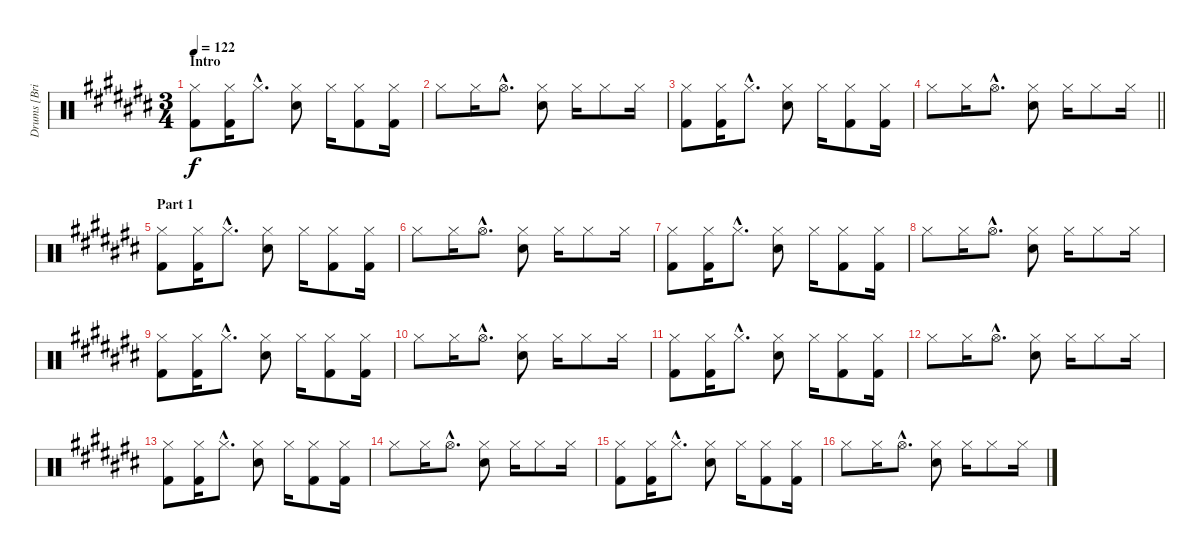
\track ("Drums [Brian \"Brain\" Mantia]" "Drums [Bri") {instrument percussion}
\staff {score}
\articulation defaults
\ts (3 4)
\section ("" "Intro")
\tempo 122
\clef neutral
\ks c#
("Hi-Hat (closed)" "Kick (hit) 2").8{dy f} ("Hi-Hat (closed)" "Kick (hit) 2").16 "Hi-Hat (closed)"{hac}.8{d} ("Hi-Hat (closed)" "Electric Snare (hit)").8 "Hi-Hat (closed)".16 ("Hi-Hat (closed)" "Kick (hit) 2").8 ("Hi-Hat (closed)" "Kick (hit) 2").16 |
"Hi-Hat (closed)".8 "Hi-Hat (closed)".16 "Hi-Hat (open)"{hac}.8{d} ("Hi-Hat (closed)" "Electric Snare (hit)").8 "Hi-Hat (closed)".16 "Hi-Hat (closed)".8 "Hi-Hat (closed)".16 |
("Hi-Hat (closed)" "Kick (hit) 2").8 ("Hi-Hat (closed)" "Kick (hit) 2").16 "Hi-Hat (closed)"{hac}.8{d} ("Hi-Hat (closed)" "Electric Snare (hit)").8 "Hi-Hat (closed)".16 ("Hi-Hat (closed)" "Kick (hit) 2").8 ("Hi-Hat (closed)" "Kick (hit) 2").16 |
\barLineRight lightlight "Hi-Hat (closed)".8 "Hi-Hat (closed)".16 "Hi-Hat (open)"{hac}.8{d}
("Hi-Hat (closed)" "Electric Snare (hit)").8 "Hi-Hat (closed)".16 "Hi-Hat (closed)".8 "Hi-Hat (closed)".16 |
\section ("" "Part 1")
("Hi-Hat (closed)" "Kick (hit) 2").8 ("Hi-Hat (closed)" "Kick (hit) 2").16 "Hi-Hat (closed)"{hac}.8{d} ("Hi-Hat (closed)" "Electric Snare (hit)").8 "Hi-Hat (closed)".16 ("Hi-Hat (closed)" "Kick (hit) 2").8 ("Hi-Hat (closed)" "Kick (hit) 2").16 |
"Hi-Hat (closed)".8 "Hi-Hat (closed)".16 "Hi-Hat (open)"{hac}.8{d} ("Hi-Hat (closed)" "Electric Snare (hit)").8 "Hi-Hat (closed)".16 "Hi-Hat (closed)".8 "Hi-Hat (closed)".16 |
("Hi-Hat (closed)" "Kick (hit) 2").8 ("Hi-Hat (closed)" "Kick (hit) 2").16 "Hi-Hat (closed)"{hac}.8{d} ("Hi-Hat (closed)" "Electric Snare (hit)").8 "Hi-Hat (closed)".16 ("Hi-Hat (closed)" "Kick (hit) 2").8 ("Hi-Hat (closed)" "Kick (hit) 2").16 |
"Hi-Hat (closed)".8 "Hi-Hat (closed)".16 "Hi-Hat (open)"{hac}.8{d} ("Hi-Hat (closed)" "Electric Snare (hit)").8 "Hi-Hat (closed)".16 "Hi-Hat (closed)".8 "Hi-Hat (closed)".16 |
("Hi-Hat (closed)" "Kick (hit) 2").8 ("Hi-Hat (closed)" "Kick (hit) 2").16 "Hi-Hat (closed)"{hac}.8{d} ("Hi-Hat (closed)" "Electric Snare (hit)").8 "Hi-Hat (closed)".16 ("Hi-Hat (closed)" "Kick (hit) 2").8 ("Hi-Hat (closed)" "Kick (hit) 2").16 |
"Hi-Hat (closed)".8 "Hi-Hat (closed)".16 "Hi-Hat (open)"{hac}.8{d} ("Hi-Hat (closed)" "Electric Snare (hit)").8 "Hi-Hat (closed)".16 "Hi-Hat (closed)".8 "Hi-Hat (closed)".16 |
("Hi-Hat (closed)" "Kick (hit) 2").8 ("Hi-Hat (closed)" "Kick (hit) 2").16 "Hi-Hat (closed)"{hac}.8{d} ("Hi-Hat (closed)" "Electric Snare (hit)").8 "Hi-Hat (closed)".16 ("Hi-Hat (closed)" "Kick (hit) 2").8 ("Hi-Hat (closed)" "Kick (hit) 2").16 |
"Hi-Hat (closed)".8 "Hi-Hat (closed)".16 "Hi-Hat (open)"{hac}.8{d} ("Hi-Hat (closed)" "Electric Snare (hit)").8 "Hi-Hat (closed)".16 "Hi-Hat (closed)".8 "Hi-Hat (closed)".16 |
("Hi-Hat (closed)" "Kick (hit) 2").8 ("Hi-Hat (closed)" "Kick (hit) 2").16 "Hi-Hat (closed)"{hac}.8{d} ("Hi-Hat (closed)" "Electric Snare (hit)").8 "Hi-Hat (closed)".16 ("Hi-Hat (closed)" "Kick (hit) 2").8 ("Hi-Hat (closed)" "Kick (hit) 2").16 |
"Hi-Hat (closed)".8 "Hi-Hat (closed)".16 "Hi-Hat (open)"{hac}.8{d} ("Hi-Hat (closed)" "Electric Snare (hit)").8 "Hi-Hat (closed)".16 "Hi-Hat (closed)".8 "Hi-Hat (closed)".16 |
("Hi-Hat (closed)" "Kick (hit) 2").8 ("Hi-Hat (closed)" "Kick (hit) 2").16 "Hi-Hat (closed)"{hac}.8{d} ("Hi-Hat (closed)" "Electric Snare (hit)").8 "Hi-Hat (closed)".16 ("Hi-Hat (closed)" "Kick (hit) 2").8 ("Hi-Hat (closed)" "Kick (hit) 2").16 |
"Hi-Hat (closed)".8 "Hi-Hat (closed)".16 "Hi-Hat (open)"{hac}.8{d} ("Hi-Hat (closed)" "Electric Snare (hit)").8 "Hi-Hat (closed)".16 "Hi-Hat (closed)".8 "Hi-Hat (closed)".16
